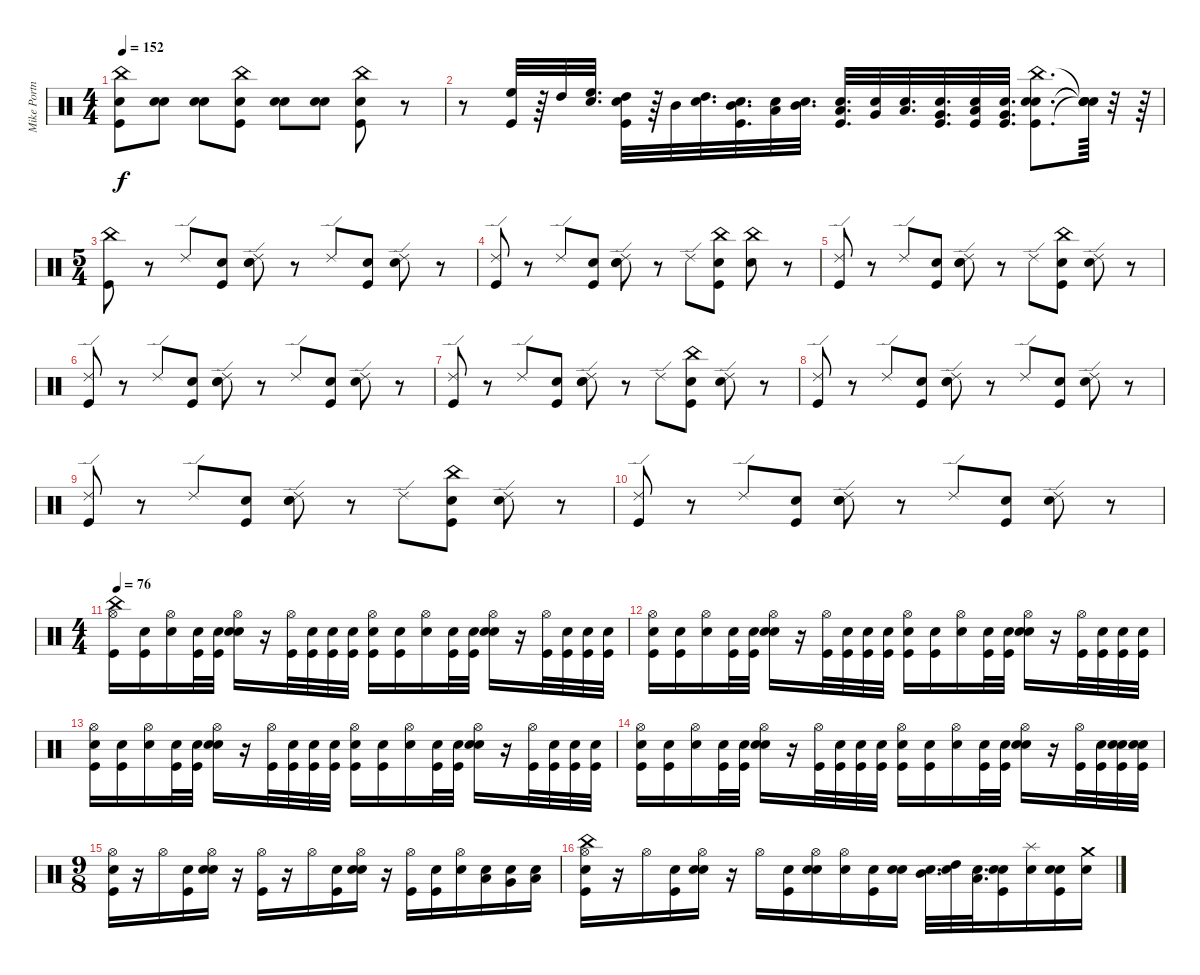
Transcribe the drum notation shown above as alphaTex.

\track ("Mike Portnoy" "Mike Portn") {instrument percussion}
\staff {score}
\articulation defaults
\ts (4 4)
\tempo 152
\clef neutral
\ks c
("Snare (hit)" "Kick (hit)" "China (hit)").8{dy f} ("Snare (hit)" "Snare (hit) 2").8 ("Snare (hit)" "Snare (hit) 2").8 ("Snare (hit)" "Kick (hit)" "China (hit)").8 ("Snare (hit)" "Snare (hit) 2").8 ("Snare (hit)" "Snare (hit) 2").8 ("Snare (hit)" "Kick (hit)" "China (hit)").8 r.8 |
r.8 ("Kick (hit)" "High Floor Tom (hit)").32 r.64 "High Tom (hit)".32 ("Snare (hit)" "High Floor Tom (hit)").32{d} ("Snare (hit)" "Kick (hit)" "High Tom (hit)").32 r.64 "Mid Tom (hit)".32 ("Snare (hit)" "High Tom (hit)").32{d} ("Snare (hit)" "Kick (hit)" "Mid Tom (hit)").32{d} ("Snare (hit)" "Low Tom (hit)").32 ("Snare (hit)" "Mid Tom (hit)").32{d} ("Snare (hit)" "Kick (hit)" "Low Tom (hit)").32{d} ("Snare (hit)" "Very Low Tom (hit)").32 ("Snare (hit)" "Low Tom (hit)").32{d} ("Snare (hit)" "Kick (hit)" "Very Low Tom (hit)").32{d} ("Snare (hit)" "Kick (hit)" "Low Floor Tom (hit)").32 ("Snare (hit)" "Kick (hit)" "Very Low Tom (hit)").32{d} ("Snare (hit)" "Kick (hit)" "Snare (hit) 2" "China (hit)").8{d} ("Snare (hit)"{t} "Snare (hit)"{t} "Snare (hit)"{t} "Snare (hit)"{t}).64 r.32 r.64 |
\ts (5 4)
("Kick (hit)" "China (hit)").8 r.8 "Ride (edge) 2".8 ("Snare (hit)" "Kick (hit)").8 ("Snare (hit)" "Snare (hit) 2" "Ride (edge) 2").8 r.8 "Ride (edge) 2".8 ("Snare (hit)" "Kick (hit)").8 ("Snare (hit)" "Ride (edge) 2").8 r.8 |
("Kick (hit)" "Ride (edge) 2").8 r.8 "Ride (edge) 2".8 ("Snare (hit)" "Kick (hit)").8 ("Snare (hit)" "Snare (hit) 2" "Ride (edge) 2").8 r.8 "Ride (edge) 2".8 ("Snare (hit)" "Kick (hit)" "China (hit)").8 ("Snare (hit)" "China (hit)").8 r.8 |
("Kick (hit)" "Ride (edge) 2").8 r.8 "Ride (edge) 2".8 ("Snare (hit)" "Kick (hit)").8 ("Snare (hit)" "Snare (hit) 2" "Ride (edge) 2").8 r.8 "Ride (edge) 2".8 ("Snare (hit)" "Kick (hit)" "China (hit)").8 ("Snare (hit)" "Ride (edge) 2").8 r.8 |
("Kick (hit)" "Ride (edge) 2").8 r.8 "Ride (edge) 2".8 ("Snare (hit)" "Kick (hit)").8 ("Snare (hit)" "Snare (hit) 2" "Ride (edge) 2").8 r.8 "Ride (edge) 2".8 ("Snare (hit)" "Kick (hit)").8 ("Snare (hit)" "Ride (edge) 2").8 r.8 |
("Kick (hit)" "Ride (edge) 2").8 r.8 "Ride (edge) 2".8 ("Snare (hit)" "Kick (hit)").8 ("Snare (hit)" "Snare (hit) 2" "Ride (edge) 2").8 r.8 "Ride (edge) 2".8 ("Snare (hit)" "Kick (hit)" "China (hit)").8 ("Snare (hit)" "Ride (edge) 2").8 r.8 |
("Kick (hit)" "Ride (edge) 2").8 r.8 "Ride (edge) 2".8 ("Snare (hit)" "Kick (hit)").8 ("Snare (hit)" "Snare (hit) 2" "Ride (edge) 2").8 r.8 "Ride (edge) 2".8 ("Snare (hit)" "Kick (hit)").8 ("Snare (hit)" "Ride (edge) 2").8 r.8 |
("Kick (hit)" "Ride (edge) 2").8 r.8 "Ride (edge) 2".8 ("Snare (hit)" "Kick (hit)").8 ("Snare (hit)" "Snare (hit) 2" "Ride (edge) 2").8 r.8 "Ride (edge) 2".8 ("Snare (hit)" "Kick (hit)" "China (hit)").8 ("Snare (hit)" "Ride (edge) 2").8 r.8 |
("Kick (hit)" "Ride (edge) 2").8 r.8 "Ride (edge) 2".8 ("Snare (hit)" "Kick (hit)").8 ("Snare (hit)" "Snare (hit) 2" "Ride (edge) 2").8 r.8 "Ride (edge) 2".8 ("Snare (hit)" "Kick (hit)").8 ("Snare (hit)" "Ride (edge) 2").8 r.8 |
\ts (4 4)
\tempo 76
("Kick (hit)" "Hi-Hat (open)" "China (hit)").16 ("Snare (hit)" "Kick (hit)").16 ("Snare (hit)" "Hi-Hat (open)").16 ("Snare (hit)" "Kick (hit)").32 ("Snare (hit)" "Kick (hit)").32 ("Snare (hit)" "Snare (hit) 2" "Hi-Hat (open)").16 r.16 ("Kick (hit)" "Hi-Hat (open)").32 ("Snare (hit)" "Kick (hit)").32 ("Snare (hit)" "Kick (hit)").32 ("Snare (hit)" "Kick (hit)").32 ("Snare (hit)" "Kick (hit)" "Hi-Hat (open)").16 ("Snare (hit)" "Kick (hit)").16 ("Snare (hit)" "Hi-Hat (open)").16 ("Snare (hit)" "Kick (hit)").32 ("Snare (hit)" "Kick (hit)").32 ("Snare (hit)" "Snare (hit) 2" "Hi-Hat (open)").16 r.16 ("Kick (hit)" "Hi-Hat (open)").32 ("Snare (hit)" "Kick (hit)").32 ("Snare (hit)" "Kick (hit)").32 ("Snare (hit)" "Kick (hit)").32 |
("Snare (hit)" "Kick (hit)" "Hi-Hat (open)").16 ("Snare (hit)" "Kick (hit)").16 ("Snare (hit)" "Hi-Hat (open)").16 ("Snare (hit)" "Kick (hit)").32 ("Snare (hit)" "Kick (hit)").32 ("Snare (hit)" "Snare (hit) 2" "Hi-Hat (open)").16 r.16 ("Kick (hit)" "Hi-Hat (open)").32 ("Snare (hit)" "Kick (hit)").32 ("Snare (hit)" "Kick (hit)").32 ("Snare (hit)" "Kick (hit)").32 ("Snare (hit)" "Kick (hit)" "Hi-Hat (open)").16 ("Snare (hit)" "Kick (hit)").16 ("Snare (hit)" "Hi-Hat (open)").16 ("Snare (hit)" "Kick (hit)").32 ("Snare (hit)" "Kick (hit)").32 ("Snare (hit)" "Snare (hit) 2" "Hi-Hat (open)").16 r.16 ("Kick (hit)" "Hi-Hat (open)").32 ("Snare (hit)" "Kick (hit)").32 ("Snare (hit)" "Kick (hit)").32 ("Snare (hit)" "Kick (hit)").32 |
("Snare (hit)" "Kick (hit)" "Hi-Hat (open)").16 ("Snare (hit)" "Kick (hit)").16 ("Snare (hit)" "Hi-Hat (open)").16 ("Snare (hit)" "Kick (hit)").32 ("Snare (hit)" "Kick (hit)").32 ("Snare (hit)" "Snare (hit) 2" "Hi-Hat (open)").16 r.16 ("Kick (hit)" "Hi-Hat (open)").32 ("Snare (hit)" "Kick (hit)").32 ("Snare (hit)" "Kick (hit)").32 ("Snare (hit)" "Kick (hit)").32 ("Snare (hit)" "Kick (hit)" "Hi-Hat (open)").16 ("Snare (hit)" "Kick (hit)").16 ("Snare (hit)" "Hi-Hat (open)").16 ("Snare (hit)" "Kick (hit)").32 ("Snare (hit)" "Kick (hit)").32 ("Snare (hit)" "Snare (hit) 2" "Hi-Hat (open)").16 r.16 ("Kick (hit)" "Hi-Hat (open)").32 ("Snare (hit)" "Kick (hit)").32 ("Snare (hit)" "Kick (hit)").32 ("Snare (hit)" "Kick (hit)").32 |
("Snare (hit)" "Kick (hit)" "Hi-Hat (open)").16 ("Snare (hit)" "Kick (hit)").16 ("Snare (hit)" "Hi-Hat (open)").16 ("Snare (hit)" "Kick (hit)").32 ("Snare (hit)" "Kick (hit)").32 ("Snare (hit)" "Snare (hit) 2" "Hi-Hat (open)").16 r.16 ("Kick (hit)" "Hi-Hat (open)").32 ("Snare (hit)" "Kick (hit)").32 ("Snare (hit)" "Kick (hit)").32 ("Snare (hit)" "Kick (hit)").32 ("Snare (hit)" "Kick (hit)" "Hi-Hat (open)").16 ("Snare (hit)" "Kick (hit)").16 ("Snare (hit)" "Hi-Hat (open)").16 ("Snare (hit)" "Kick (hit)").32 ("Snare (hit)" "Kick (hit)").32 ("Snare (hit)" "Snare (hit) 2" "Hi-Hat (open)").16 r.16 ("Kick (hit)" "Hi-Hat (open)").32 ("Snare (hit)" "Kick (hit)").32 ("Snare (hit)" "Kick (hit)" "Snare (hit) 2").32 ("Snare (hit)" "Kick (hit)" "Snare (hit) 2").32 |
\ts (9 8)
("Snare (hit)" "Kick (hit)" "Hi-Hat (open)").16 r.16 "Hi-Hat (open)".16 ("Snare (hit)" "Kick (hit)").16 ("Snare (hit)" "Snare (hit) 2" "Hi-Hat (open)").16 r.16 ("Kick (hit)" "Hi-Hat (open)").16 r.16 "Hi-Hat (open)".16 ("Snare (hit)" "Kick (hit)").16 ("Snare (hit)" "Snare (hit) 2" "Hi-Hat (open)").16 r.16 ("Kick (hit)" "Hi-Hat (open)").16 ("Snare (hit)" "Kick (hit)").16 ("Snare (hit)" "Hi-Hat (open)").16 ("Snare (hit)" "Low Tom (hit)").16 ("Snare (hit)" "Very Low Tom (hit)").16 ("Snare (hit)" "Low Floor Tom (hit)").16 |
("Snare (hit)" "Kick (hit)" "Hi-Hat (open)" "China (hit)").16 r.16 "Hi-Hat (open)".16 ("Snare (hit)" "Kick (hit)").16 ("Snare (hit)" "Snare (hit) 2" "Hi-Hat (open)").16 r.16 "Hi-Hat (open)".16 ("Snare (hit)" "Kick (hit)").16 ("Snare (hit)" "Snare (hit) 2" "Hi-Hat (open)").16 ("Snare (hit)" "Hi-Hat (open)").16 ("Snare (hit)" "Kick (hit)").16 ("Snare (hit)" "Snare (hit) 2").16 ("Snare (hit)" "Mid Tom (hit)").32{d} ("Snare (hit)" "High Tom (hit)").32 ("Snare (hit)" "Low Tom (hit)").32{d} ("Snare (hit)" "Kick (hit)" "Snare (hit) 2").16 ("Snare (hit)" "Splash (hit)").16 ("Snare (hit)" "Kick (hit)" "Snare (hit) 2").16 ("Snare (hit)" "Crash medium (hit)").16
